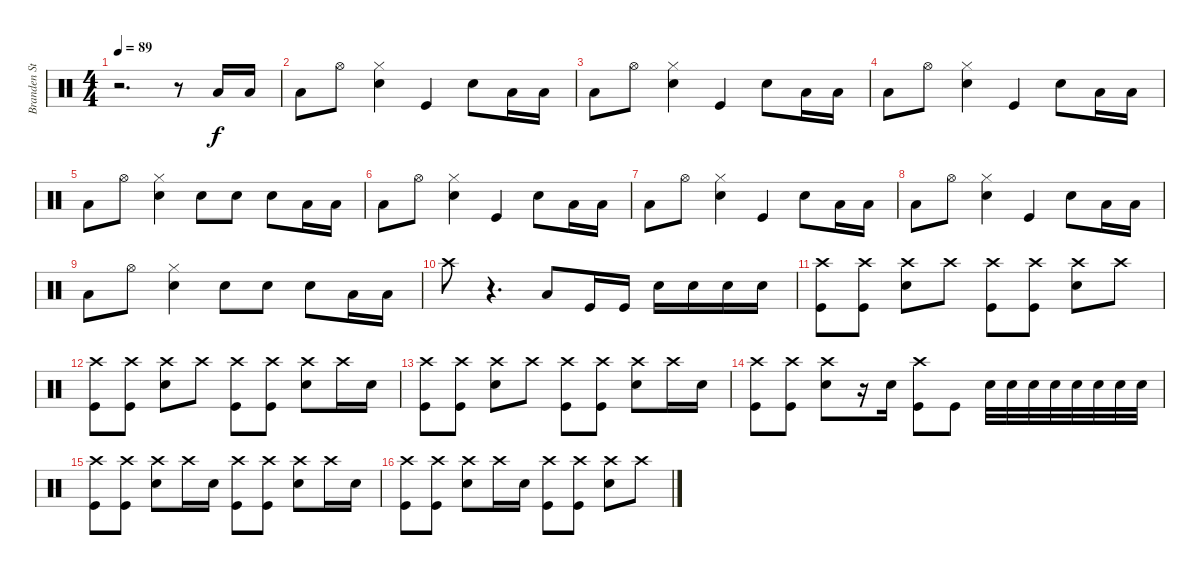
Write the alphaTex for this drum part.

\track ("Branden Steineckert - Drums" "Branden St") {instrument percussion}
\staff {score}
\articulation defaults
\ts (4 4)
\tempo 89
\clef neutral
\ks c
r.2{d dy mp} r.8 "Low Floor Tom (hit)".16{dy f} "Low Floor Tom (hit)".16 |
"Low Floor Tom (hit)".8 "Hi-Hat (open)".8 ("Hi-Hat (closed)" "Electric Snare (hit)").4 "Kick (hit)".4 "Electric Snare (hit)".8 "Low Floor Tom (hit)".16 "Low Floor Tom (hit)".16 |
"Low Floor Tom (hit)".8 "Hi-Hat (open)".8 ("Hi-Hat (closed)" "Electric Snare (hit)").4 "Kick (hit)".4 "Electric Snare (hit)".8 "Low Floor Tom (hit)".16 "Low Floor Tom (hit)".16 |
"Low Floor Tom (hit)".8 "Hi-Hat (open)".8 ("Hi-Hat (closed)" "Electric Snare (hit)").4 "Kick (hit)".4 "Electric Snare (hit)".8 "Low Floor Tom (hit)".16 "Low Floor Tom (hit)".16 |
"Low Floor Tom (hit)".8 "Hi-Hat (open)".8 ("Hi-Hat (closed)" "Electric Snare (hit)").4 "Electric Snare (hit)".8 "Electric Snare (hit)".8 "Electric Snare (hit)".8 "Low Floor Tom (hit)".16 "Low Floor Tom (hit)".16 |
"Low Floor Tom (hit)".8 "Hi-Hat (open)".8 ("Hi-Hat (closed)" "Electric Snare (hit)").4 "Kick (hit)".4 "Electric Snare (hit)".8 "Low Floor Tom (hit)".16 "Low Floor Tom (hit)".16 |
"Low Floor Tom (hit)".8 "Hi-Hat (open)".8 ("Hi-Hat (closed)" "Electric Snare (hit)").4 "Kick (hit)".4 "Electric Snare (hit)".8 "Low Floor Tom (hit)".16 "Low Floor Tom (hit)".16 |
"Low Floor Tom (hit)".8 "Hi-Hat (open)".8 ("Hi-Hat (closed)" "Electric Snare (hit)").4 "Kick (hit)".4 "Electric Snare (hit)".8 "Low Floor Tom (hit)".16 "Low Floor Tom (hit)".16 |
"Low Floor Tom (hit)".8 "Hi-Hat (open)".8 ("Hi-Hat (closed)" "Electric Snare (hit)").4 "Electric Snare (hit)".8 "Electric Snare (hit)".8 "Electric Snare (hit)".8 "Low Floor Tom (hit)".16 "Low Floor Tom (hit)".16 |
"Crash high (hit)".8 r.4{d} "Low Floor Tom (hit)".8 "Kick (hit)".16 "Kick (hit)".16 "Electric Snare (hit)".16 "Electric Snare (hit)".16 "Electric Snare (hit)".16 "Electric Snare (hit)".16 |
("Crash high (hit)" "Kick (hit)").8 ("Crash high (hit)" "Kick (hit)").8 ("Crash high (hit)" "Electric Snare (hit)").8 "Crash high (hit)".8 ("Crash high (hit)" "Kick (hit)").8 ("Crash high (hit)" "Kick (hit)").8 ("Crash high (hit)" "Electric Snare (hit)").8 "Crash high (hit)".8 |
("Crash high (hit)" "Kick (hit)").8 ("Crash high (hit)" "Kick (hit)").8 ("Crash high (hit)" "Electric Snare (hit)").8 "Crash high (hit)".8 ("Crash high (hit)" "Kick (hit)").8 ("Crash high (hit)" "Kick (hit)").8 ("Crash high (hit)" "Electric Snare (hit)").8 "Crash high (hit)".16 "Electric Snare (hit)".16 |
("Crash high (hit)" "Kick (hit)").8 ("Crash high (hit)" "Kick (hit)").8 ("Crash high (hit)" "Electric Snare (hit)").8 "Crash high (hit)".8 ("Crash high (hit)" "Kick (hit)").8 ("Crash high (hit)" "Kick (hit)").8 ("Crash high (hit)" "Electric Snare (hit)").8 "Crash high (hit)".16 "Electric Snare (hit)".16 |
("Crash high (hit)" "Kick (hit)").8 ("Crash high (hit)" "Kick (hit)").8 ("Crash high (hit)" "Electric Snare (hit)").8 r.16 "Electric Snare (hit)".16 ("Crash high (hit)" "Kick (hit)").8 "Kick (hit)".8 "Electric Snare (hit)".32 "Electric Snare (hit)".32 "Electric Snare (hit)".32 "Electric Snare (hit)".32 "Electric Snare (hit)".32 "Electric Snare (hit)".32 "Electric Snare (hit)".32 "Electric Snare (hit)".32 |
("Crash high (hit)" "Kick (hit)").8 ("Crash high (hit)" "Kick (hit)").8 ("Crash high (hit)" "Electric Snare (hit)").8 "Crash high (hit)".16 "Electric Snare (hit)".16 ("Crash high (hit)" "Kick (hit)").8 ("Crash high (hit)" "Kick (hit)").8 ("Crash high (hit)" "Electric Snare (hit)").8 "Crash high (hit)".16 "Electric Snare (hit)".16 |
("Crash high (hit)" "Kick (hit)").8 ("Crash high (hit)" "Kick (hit)").8 ("Crash high (hit)" "Electric Snare (hit)").8 "Crash high (hit)".16 "Electric Snare (hit)".16 ("Crash high (hit)" "Kick (hit)").8 ("Crash high (hit)" "Kick (hit)").8 ("Crash high (hit)" "Electric Snare (hit)").8 "Crash high (hit)".8
